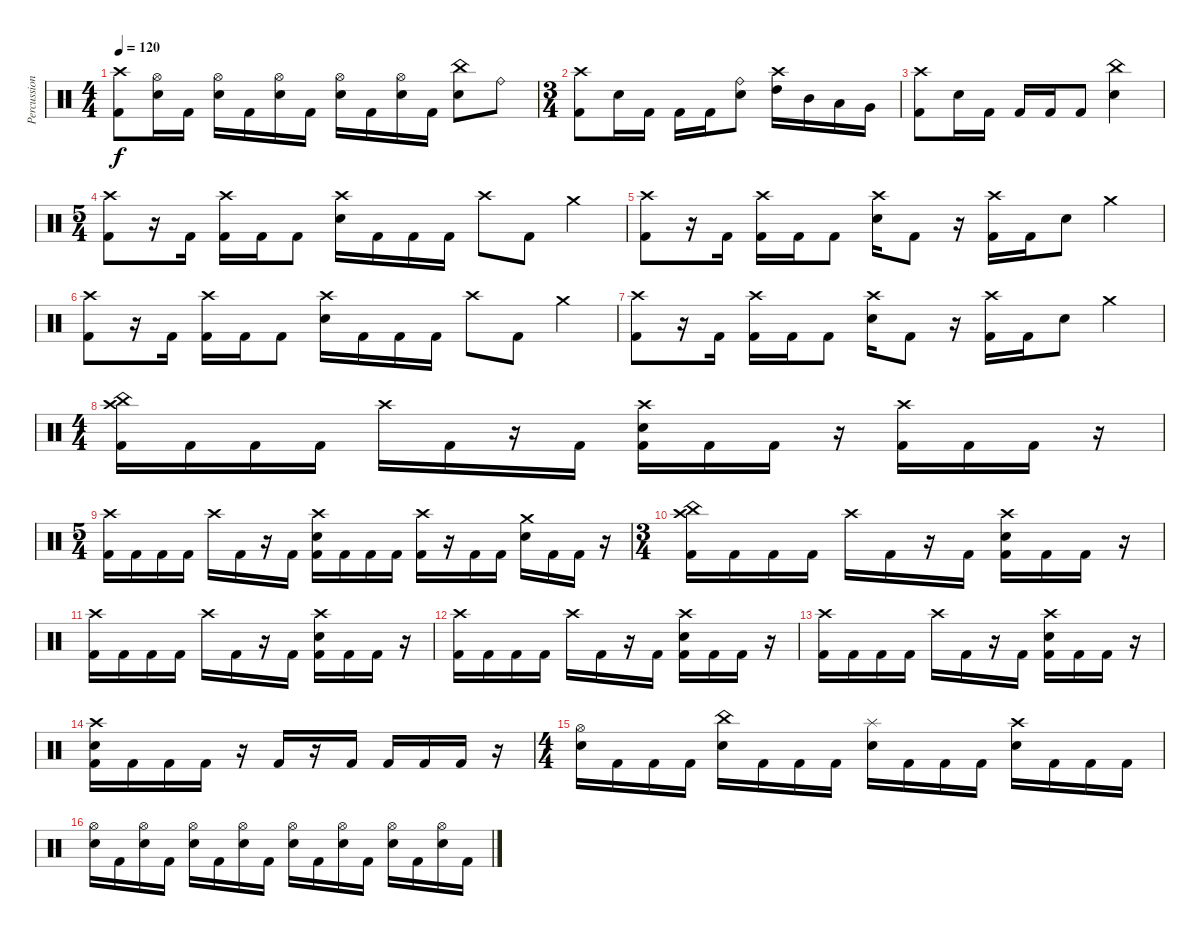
\track ("Percussion" "Percussion") {instrument percussion}
\staff {score}
\articulation defaults
\ts (4 4)
\tempo 120
\clef neutral
\ks c
("Crash high (hit)" "Kick (hit) 2").8{dy f} ("Hi-Hat (open)" "Electric Snare (hit)").16 "Kick (hit) 2".16 ("Hi-Hat (open)" "Electric Snare (hit)").16 "Kick (hit) 2".16 ("Hi-Hat (open)" "Electric Snare (hit)").16 "Kick (hit) 2".16 ("Hi-Hat (open)" "Electric Snare (hit)").16 "Kick (hit) 2".16 ("Hi-Hat (open)" "Electric Snare (hit)").16 "Kick (hit) 2".16 ("China (hit)" "Electric Snare (hit)").8 "Ride (bell)".8 |
\ts (3 4)
("Crash high (hit)" "Kick (hit) 2").8 "Electric Snare (hit)".16 "Kick (hit) 2".16 "Kick (hit) 2".16 "Kick (hit) 2".16 ("Ride (bell)" "Electric Snare (hit)").8 ("Crash high (hit)" "High Tom (hit)").16 "Mid Tom (hit)".16 "Low Tom (hit)".16 "Very Low Tom (hit)".16 |
("Crash high (hit)" "Kick (hit) 2").8 "Electric Snare (hit)".16 "Kick (hit) 2".16 "Kick (hit) 2".16 "Kick (hit) 2".16 "Kick (hit) 2".8 ("China (hit)" "Electric Snare (hit)").4 |
\ts (5 4)
("Crash high (hit)" "Kick (hit) 2").8 r.16 "Kick (hit) 2".16 ("Crash high (hit)" "Kick (hit) 2").16 "Kick (hit) 2".16 "Kick (hit) 2".8 ("Crash high (hit)" "Electric Snare (hit)").16 "Kick (hit) 2".16 "Kick (hit) 2".16 "Kick (hit) 2".16 "Crash high (hit)".8 "Kick (hit) 2".8 "Crash medium (hit)".4 |
("Crash high (hit)" "Kick (hit) 2").8 r.16 "Kick (hit) 2".16 ("Crash high (hit)" "Kick (hit) 2").16 "Kick (hit) 2".16 "Kick (hit) 2".8 ("Crash high (hit)" "Electric Snare (hit)").16 "Kick (hit) 2".8 r.16 ("Crash high (hit)" "Kick (hit) 2").16 "Kick (hit) 2".16 "Electric Snare (hit)".8 "Crash medium (hit)".4 |
("Crash high (hit)" "Kick (hit) 2").8 r.16 "Kick (hit) 2".16 ("Crash high (hit)" "Kick (hit) 2").16 "Kick (hit) 2".16 "Kick (hit) 2".8 ("Crash high (hit)" "Electric Snare (hit)").16 "Kick (hit) 2".16 "Kick (hit) 2".16 "Kick (hit) 2".16 "Crash high (hit)".8 "Kick (hit) 2".8 "Crash medium (hit)".4 |
("Crash high (hit)" "Kick (hit) 2").8 r.16 "Kick (hit) 2".16 ("Crash high (hit)" "Kick (hit) 2").16 "Kick (hit) 2".16 "Kick (hit) 2".8 ("Crash high (hit)" "Electric Snare (hit)").16 "Kick (hit) 2".8 r.16 ("Crash high (hit)" "Kick (hit) 2").16 "Kick (hit) 2".16 "Electric Snare (hit)".8 "Crash medium (hit)".4 |
\ts (4 4)
("China (hit)" "Crash high (hit)" "Kick (hit) 2").16 "Kick (hit) 2".16 "Kick (hit) 2".16 "Kick (hit) 2".16 "Crash high (hit)".16 "Kick (hit) 2".16 r.16 "Kick (hit) 2".16 ("Crash high (hit)" "Electric Snare (hit)" "Kick (hit) 2").16 "Kick (hit) 2".16 "Kick (hit) 2".16 r.16 ("Crash high (hit)" "Kick (hit) 2").16 "Kick (hit) 2".16 "Kick (hit) 2".16 r.16 |
\ts (5 4)
("Crash high (hit)" "Kick (hit) 2").16 "Kick (hit) 2".16 "Kick (hit) 2".16 "Kick (hit) 2".16 "Crash high (hit)".16 "Kick (hit) 2".16 r.16 "Kick (hit) 2".16 ("Crash high (hit)" "Electric Snare (hit)" "Kick (hit) 2").16 "Kick (hit) 2".16 "Kick (hit) 2".16 "Kick (hit) 2".16 ("Crash high (hit)" "Kick (hit) 2").16 r.16 "Kick (hit) 2".16 "Kick (hit) 2".16 ("Crash medium (hit)" "Electric Snare (hit)").16 "Kick (hit) 2".16 "Kick (hit) 2".16 r.16 |
\ts (3 4)
("China (hit)" "Crash high (hit)" "Kick (hit) 2").16 "Kick (hit) 2".16 "Kick (hit) 2".16 "Kick (hit) 2".16 "Crash high (hit)".16 "Kick (hit) 2".16 r.16 "Kick (hit) 2".16 ("Crash high (hit)" "Electric Snare (hit)" "Kick (hit) 2").16 "Kick (hit) 2".16 "Kick (hit) 2".16 r.16 |
("Crash high (hit)" "Kick (hit) 2").16 "Kick (hit) 2".16 "Kick (hit) 2".16 "Kick (hit) 2".16 "Crash high (hit)".16 "Kick (hit) 2".16 r.16 "Kick (hit) 2".16 ("Crash high (hit)" "Electric Snare (hit)" "Kick (hit) 2").16 "Kick (hit) 2".16 "Kick (hit) 2".16 r.16 |
("Crash high (hit)" "Kick (hit) 2").16 "Kick (hit) 2".16 "Kick (hit) 2".16 "Kick (hit) 2".16 "Crash high (hit)".16 "Kick (hit) 2".16 r.16 "Kick (hit) 2".16 ("Crash high (hit)" "Electric Snare (hit)" "Kick (hit) 2").16 "Kick (hit) 2".16 "Kick (hit) 2".16 r.16 |
("Crash high (hit)" "Kick (hit) 2").16 "Kick (hit) 2".16 "Kick (hit) 2".16 "Kick (hit) 2".16 "Crash high (hit)".16 "Kick (hit) 2".16 r.16 "Kick (hit) 2".16 ("Crash high (hit)" "Electric Snare (hit)" "Kick (hit) 2").16 "Kick (hit) 2".16 "Kick (hit) 2".16 r.16 |
("Crash high (hit)" "Electric Snare (hit)" "Kick (hit) 2").16 "Kick (hit) 2".16 "Kick (hit) 2".16 "Kick (hit) 2".16 r.16 "Kick (hit) 2".16 r.16 "Kick (hit) 2".16 "Kick (hit) 2".16 "Kick (hit) 2".16 "Kick (hit) 2".16 r.16 |
\ts (4 4)
("Hi-Hat (open)" "Electric Snare (hit)").16 "Kick (hit) 2".16 "Kick (hit) 2".16 "Kick (hit) 2".16 ("China (hit)" "Electric Snare (hit)").16 "Kick (hit) 2".16 "Kick (hit) 2".16 "Kick (hit) 2".16 ("Splash (hit)" "Electric Snare (hit)").16 "Kick (hit) 2".16 "Kick (hit) 2".16 "Kick (hit) 2".16 ("Crash high (hit)" "Electric Snare (hit)").16 "Kick (hit) 2".16 "Kick (hit) 2".16 "Kick (hit) 2".16 |
("Hi-Hat (open)" "Electric Snare (hit)").16 "Kick (hit) 2".16 ("Hi-Hat (open)" "Electric Snare (hit)").16 "Kick (hit) 2".16 ("Hi-Hat (open)" "Electric Snare (hit)").16 "Kick (hit) 2".16 ("Hi-Hat (open)" "Electric Snare (hit)").16 "Kick (hit) 2".16 ("Hi-Hat (open)" "Electric Snare (hit)").16 "Kick (hit) 2".16 ("Hi-Hat (open)" "Electric Snare (hit)").16 "Kick (hit) 2".16 ("Hi-Hat (open)" "Electric Snare (hit)").16 "Kick (hit) 2".16 ("Hi-Hat (open)" "Electric Snare (hit)").16 "Kick (hit) 2".16
